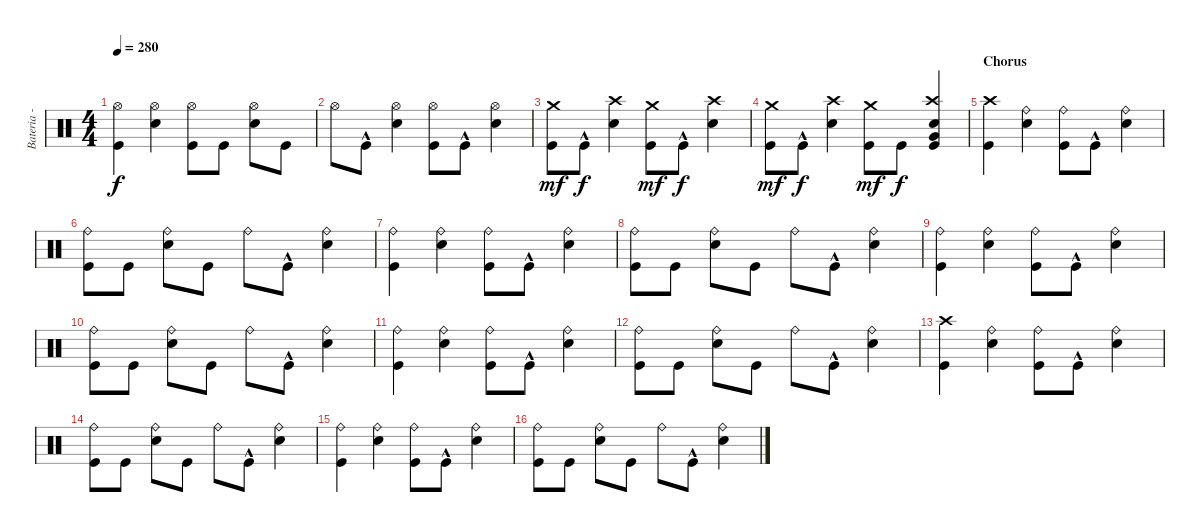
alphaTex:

\track ("Bateria - Larzon" "Bateria - ") {instrument percussion}
\staff {score}
\articulation defaults
\ts (4 4)
\tempo 280
\clef neutral
\ks c
("Kick (hit)" "Hi-Hat (open)").4{dy f} ("Snare (hit) 2" "Hi-Hat (open)").4 ("Kick (hit)" "Hi-Hat (open)").8 "Kick (hit)".8 ("Snare (hit) 2" "Hi-Hat (open)").8 "Kick (hit)".8 |
"Hi-Hat (open)".8 "Kick (hit)"{hac}.8 ("Snare (hit) 2" "Hi-Hat (open)").4 ("Kick (hit)" "Hi-Hat (open)").8 "Kick (hit)"{hac}.8 ("Snare (hit) 2" "Hi-Hat (open)").4 |
("Kick (hit)" "Crash medium (hit)").8{dy mf} "Kick (hit)"{hac}.8{dy f} ("Snare (hit) 2" "Crash high (hit)").4 ("Kick (hit)" "Crash medium (hit)").8{dy mf} "Kick (hit)"{hac}.8{dy f} ("Snare (hit) 2" "Crash high (hit)").4 |
("Kick (hit)" "Crash medium (hit)").8{dy mf} "Kick (hit)"{hac}.8{dy f} ("Snare (hit) 2" "Crash high (hit)").4 ("Kick (hit)" "Crash medium (hit)").8{dy mf} "Kick (hit)".8{dy f} ("Kick (hit)" "Snare (hit) 2" "Very Low Tom (hit)" "Crash high (hit)").4 |
\section ("" "Chorus")
("Kick (hit)" "Crash high (hit)").4 ("Snare (hit) 2" "Ride (bell)").4 ("Kick (hit)" "Ride (bell)").8 "Kick (hit)"{hac}.8 ("Snare (hit) 2" "Ride (bell)").4 |
("Kick (hit)" "Ride (bell)").8 "Kick (hit)".8 ("Snare (hit) 2" "Ride (bell)").8 "Kick (hit)".8 "Ride (bell)".8 "Kick (hit)"{hac}.8 ("Snare (hit) 2" "Ride (bell)").4 |
("Kick (hit)" "Ride (bell)").4 ("Snare (hit) 2" "Ride (bell)").4 ("Kick (hit)" "Ride (bell)").8 "Kick (hit)"{hac}.8 ("Snare (hit) 2" "Ride (bell)").4 |
("Kick (hit)" "Ride (bell)").8 "Kick (hit)".8 ("Snare (hit) 2" "Ride (bell)").8 "Kick (hit)".8 "Ride (bell)".8 "Kick (hit)"{hac}.8 ("Snare (hit) 2" "Ride (bell)").4 |
("Kick (hit)" "Ride (bell)").4 ("Snare (hit) 2" "Ride (bell)").4 ("Kick (hit)" "Ride (bell)").8 "Kick (hit)"{hac}.8 ("Snare (hit) 2" "Ride (bell)").4 |
("Kick (hit)" "Ride (bell)").8 "Kick (hit)".8 ("Snare (hit) 2" "Ride (bell)").8 "Kick (hit)".8 "Ride (bell)".8 "Kick (hit)"{hac}.8 ("Snare (hit) 2" "Ride (bell)").4 |
("Kick (hit)" "Ride (bell)").4 ("Snare (hit) 2" "Ride (bell)").4 ("Kick (hit)" "Ride (bell)").8 "Kick (hit)"{hac}.8 ("Snare (hit) 2" "Ride (bell)").4 |
("Kick (hit)" "Ride (bell)").8 "Kick (hit)".8 ("Snare (hit) 2" "Ride (bell)").8 "Kick (hit)".8 "Ride (bell)".8 "Kick (hit)"{hac}.8 ("Snare (hit) 2" "Ride (bell)").4 |
("Kick (hit)" "Crash high (hit)").4 ("Snare (hit) 2" "Ride (bell)").4 ("Kick (hit)" "Ride (bell)").8 "Kick (hit)"{hac}.8 ("Snare (hit) 2" "Ride (bell)").4 |
("Kick (hit)" "Ride (bell)").8 "Kick (hit)".8 ("Snare (hit) 2" "Ride (bell)").8 "Kick (hit)".8 "Ride (bell)".8 "Kick (hit)"{hac}.8 ("Snare (hit) 2" "Ride (bell)").4 |
("Kick (hit)" "Ride (bell)").4 ("Snare (hit) 2" "Ride (bell)").4 ("Kick (hit)" "Ride (bell)").8 "Kick (hit)"{hac}.8 ("Snare (hit) 2" "Ride (bell)").4 |
("Kick (hit)" "Ride (bell)").8 "Kick (hit)".8 ("Snare (hit) 2" "Ride (bell)").8 "Kick (hit)".8 "Ride (bell)".8 "Kick (hit)"{hac}.8 ("Snare (hit) 2" "Ride (bell)").4
